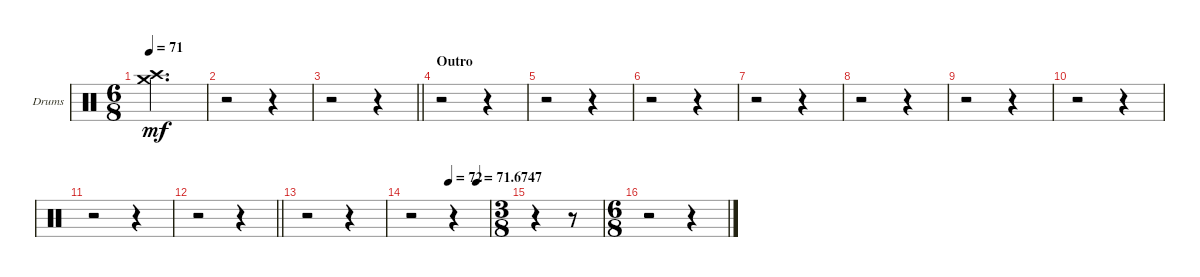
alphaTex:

\bracketExtendMode groupsimilarinstruments
\firstSystemTrackNameOrientation horizontal
\otherSystemsTrackNameOrientation horizontal
\track ("Drums" "Drums") {instrument percussion}
\staff {score}
\articulation defaults
\ts (6 8)
\tempo 71
\clef neutral
\ks c
("Crash medium (hit)"{t} "Crash high (hit)"{t}).2{d dy mf} |
r.2 r.4 |
\barLineRight lightlight
r.2 r.4 |
\section ("" "Outro")
r.2 r.4 |
r.2 r.4 |
r.2 r.4 |
r.2 r.4 |
r.2 r.4 |
r.2 r.4 |
r.2 r.4 |
r.2 r.4 |
\barLineRight lightlight
r.2 r.4 |
r.2 r.4 |
\tempo (72 0.4875)
\tempo (71.6747 0.84375)
r.2 r.4 |
\ts (3 8)
\beaming (8 3)
r.4 r.8 |
\ts (6 8)
\beaming (8 3 3)
r.2 r.4
